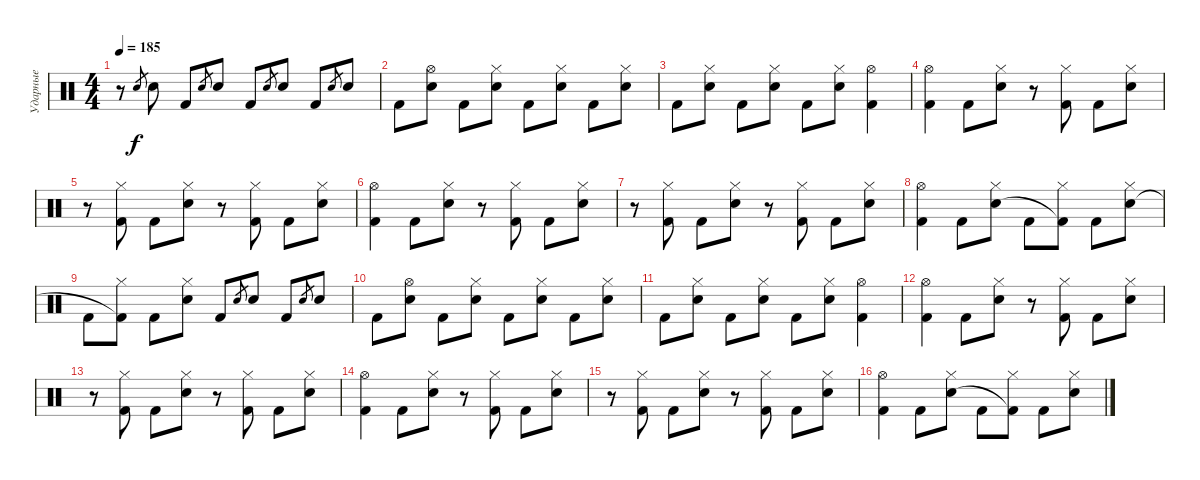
\track ("Ударные" "Ударные") {instrument percussion}
\staff {score}
\articulation defaults
\ts (4 4)
\tempo 185
\clef neutral
\ks c
r.8{dy f} "Electric Snare (hit)".8{gr} "Electric Snare (hit)".8 "Kick (hit) 2".8 "Electric Snare (hit)".8{gr} "Electric Snare (hit)".8 "Kick (hit) 2".8 "Electric Snare (hit)".8{gr} "Electric Snare (hit)".8 "Kick (hit) 2".8 "Electric Snare (hit)".8{gr} "Electric Snare (hit)".8 |
"Kick (hit) 2".8 ("Hi-Hat (open)" "Electric Snare (hit)").8 "Kick (hit) 2".8 ("Hi-Hat (closed)" "Electric Snare (hit)").8 "Kick (hit) 2".8 ("Hi-Hat (closed)" "Electric Snare (hit)").8 "Kick (hit) 2".8 ("Hi-Hat (closed)" "Electric Snare (hit)").8 |
"Kick (hit) 2".8 ("Hi-Hat (closed)" "Electric Snare (hit)").8 "Kick (hit) 2".8 ("Hi-Hat (closed)" "Electric Snare (hit)").8 "Kick (hit) 2".8 ("Hi-Hat (closed)" "Electric Snare (hit)").8 ("Hi-Hat (open)" "Kick (hit) 2").4 |
("Hi-Hat (open)" "Kick (hit) 2").4 "Kick (hit) 2".8 ("Hi-Hat (closed)" "Electric Snare (hit)").8 r.8 ("Hi-Hat (closed)" "Kick (hit) 2").8 "Kick (hit) 2".8 ("Hi-Hat (closed)" "Electric Snare (hit)").8 |
r.8 ("Hi-Hat (closed)" "Kick (hit) 2").8 "Kick (hit) 2".8 ("Hi-Hat (closed)" "Electric Snare (hit)").8 r.8 ("Hi-Hat (closed)" "Kick (hit) 2").8 "Kick (hit) 2".8 ("Hi-Hat (closed)" "Electric Snare (hit)").8 |
("Hi-Hat (open)" "Kick (hit) 2").4 "Kick (hit) 2".8 ("Hi-Hat (closed)" "Electric Snare (hit)").8 r.8 ("Hi-Hat (closed)" "Kick (hit) 2").8 "Kick (hit) 2".8 ("Hi-Hat (closed)" "Electric Snare (hit)").8 |
r.8 ("Hi-Hat (closed)" "Kick (hit) 2").8 "Kick (hit) 2".8 ("Hi-Hat (closed)" "Electric Snare (hit)").8 r.8 ("Hi-Hat (closed)" "Kick (hit) 2").8 "Kick (hit) 2".8 ("Hi-Hat (closed)" "Electric Snare (hit)").8 |
("Hi-Hat (open)" "Kick (hit) 2").4 "Kick (hit) 2".8 ("Hi-Hat (closed)" "Electric Snare (hit)").8 "Kick (hit) 2".8 ("Hi-Hat (closed)" "Kick (hit) 2"{t}).8 "Kick (hit) 2".8 ("Hi-Hat (closed)" "Electric Snare (hit)").8 |
"Kick (hit) 2".8 ("Hi-Hat (closed)" "Kick (hit) 2"{t}).8 "Kick (hit) 2".8 ("Hi-Hat (closed)" "Electric Snare (hit)").8 "Kick (hit) 2".8 "Electric Snare (hit)".8{gr} "Electric Snare (hit)".8 "Kick (hit) 2".8 "Electric Snare (hit)".8{gr} "Electric Snare (hit)".8 |
"Kick (hit) 2".8 ("Hi-Hat (open)" "Electric Snare (hit)").8 "Kick (hit) 2".8 ("Hi-Hat (closed)" "Electric Snare (hit)").8 "Kick (hit) 2".8 ("Hi-Hat (closed)" "Electric Snare (hit)").8 "Kick (hit) 2".8 ("Hi-Hat (closed)" "Electric Snare (hit)").8 |
"Kick (hit) 2".8 ("Hi-Hat (closed)" "Electric Snare (hit)").8 "Kick (hit) 2".8 ("Hi-Hat (closed)" "Electric Snare (hit)").8 "Kick (hit) 2".8 ("Hi-Hat (closed)" "Electric Snare (hit)").8 ("Hi-Hat (open)" "Kick (hit) 2").4 |
("Hi-Hat (open)" "Kick (hit) 2").4 "Kick (hit) 2".8 ("Hi-Hat (closed)" "Electric Snare (hit)").8 r.8 ("Hi-Hat (closed)" "Kick (hit) 2").8 "Kick (hit) 2".8 ("Hi-Hat (closed)" "Electric Snare (hit)").8 |
r.8 ("Hi-Hat (closed)" "Kick (hit) 2").8 "Kick (hit) 2".8 ("Hi-Hat (closed)" "Electric Snare (hit)").8 r.8 ("Hi-Hat (closed)" "Kick (hit) 2").8 "Kick (hit) 2".8 ("Hi-Hat (closed)" "Electric Snare (hit)").8 |
("Hi-Hat (open)" "Kick (hit) 2").4 "Kick (hit) 2".8 ("Hi-Hat (closed)" "Electric Snare (hit)").8 r.8 ("Hi-Hat (closed)" "Kick (hit) 2").8 "Kick (hit) 2".8 ("Hi-Hat (closed)" "Electric Snare (hit)").8 |
r.8 ("Hi-Hat (closed)" "Kick (hit) 2").8 "Kick (hit) 2".8 ("Hi-Hat (closed)" "Electric Snare (hit)").8 r.8 ("Hi-Hat (closed)" "Kick (hit) 2").8 "Kick (hit) 2".8 ("Hi-Hat (closed)" "Electric Snare (hit)").8 |
("Hi-Hat (open)" "Kick (hit) 2").4 "Kick (hit) 2".8 ("Hi-Hat (closed)" "Electric Snare (hit)").8 "Kick (hit) 2".8 ("Hi-Hat (closed)" "Kick (hit) 2"{t}).8 "Kick (hit) 2".8 ("Hi-Hat (closed)" "Electric Snare (hit)").8
